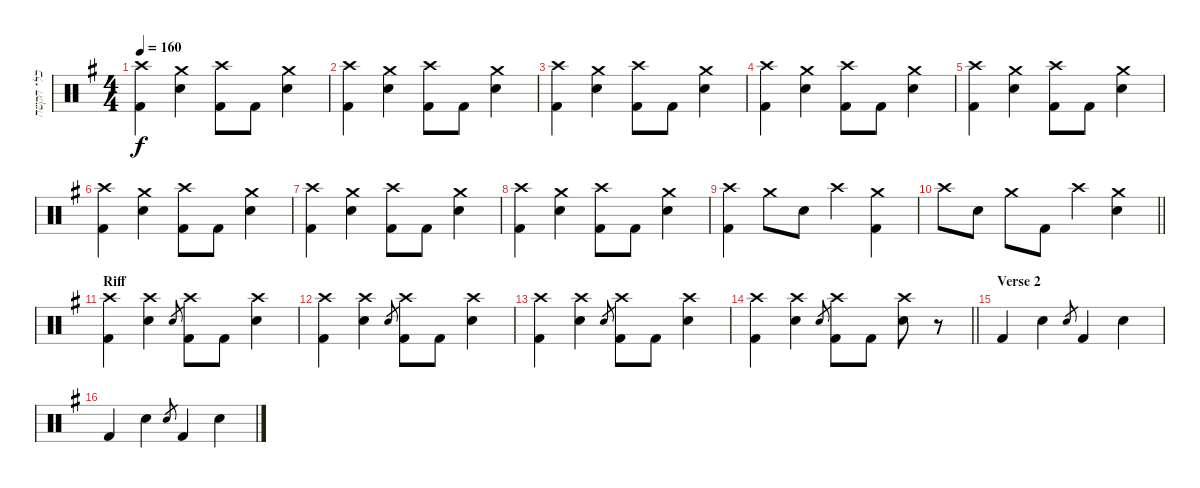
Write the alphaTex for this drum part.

\track ("כלי הקשה" "כלי הקשה") {instrument percussion bank 127}
\staff {score}
\articulation defaults
\ts (4 4)
\tempo 160
\clef neutral
\ks eminor
("Crash high (hit)" "Kick (hit) 2").4{dy f} ("Crash medium (hit)" "Electric Snare (hit)").4 ("Crash high (hit)" "Kick (hit) 2").8 "Kick (hit) 2".8 ("Crash medium (hit)" "Electric Snare (hit)").4 |
("Crash high (hit)" "Kick (hit) 2").4 ("Crash medium (hit)" "Electric Snare (hit)").4 ("Crash high (hit)" "Kick (hit) 2").8 "Kick (hit) 2".8 ("Crash medium (hit)" "Electric Snare (hit)").4 |
("Crash high (hit)" "Kick (hit) 2").4 ("Crash medium (hit)" "Electric Snare (hit)").4 ("Crash high (hit)" "Kick (hit) 2").8 "Kick (hit) 2".8 ("Crash medium (hit)" "Electric Snare (hit)").4 |
("Crash high (hit)" "Kick (hit) 2").4 ("Crash medium (hit)" "Electric Snare (hit)").4 ("Crash high (hit)" "Kick (hit) 2").8 "Kick (hit) 2".8 ("Crash medium (hit)" "Electric Snare (hit)").4 |
("Crash high (hit)" "Kick (hit) 2").4 ("Crash medium (hit)" "Electric Snare (hit)").4 ("Crash high (hit)" "Kick (hit) 2").8 "Kick (hit) 2".8 ("Crash medium (hit)" "Electric Snare (hit)").4 |
("Crash high (hit)" "Kick (hit) 2").4 ("Crash medium (hit)" "Electric Snare (hit)").4 ("Crash high (hit)" "Kick (hit) 2").8 "Kick (hit) 2".8 ("Crash medium (hit)" "Electric Snare (hit)").4 |
("Crash high (hit)" "Kick (hit) 2").4 ("Crash medium (hit)" "Electric Snare (hit)").4 ("Crash high (hit)" "Kick (hit) 2").8 "Kick (hit) 2".8 ("Crash medium (hit)" "Electric Snare (hit)").4 |
("Crash high (hit)" "Kick (hit) 2").4 ("Crash medium (hit)" "Electric Snare (hit)").4 ("Crash high (hit)" "Kick (hit) 2").8 "Kick (hit) 2".8 ("Crash medium (hit)" "Electric Snare (hit)").4 |
("Crash high (hit)" "Kick (hit) 2").4 "Crash medium (hit)".8 "Electric Snare (hit)".8 "Crash high (hit)".4 ("Crash medium (hit)" "Kick (hit) 2").4 |
\barLineRight lightlight "Crash high (hit)".8 "Electric Snare (hit)".8 "Crash medium (hit)".8 "Kick (hit) 2".8 "Crash high (hit)".4
("Crash medium (hit)" "Electric Snare (hit)").4 |
\section ("" "Riff")
("Crash high (hit)" "Kick (hit) 2").4 ("Crash high (hit)" "Electric Snare (hit)").4 "Electric Snare (hit)".8{gr} ("Crash high (hit)" "Kick (hit) 2").8 "Kick (hit) 2".8 ("Crash high (hit)" "Electric Snare (hit)").4 |
("Crash high (hit)" "Kick (hit) 2").4 ("Crash high (hit)" "Electric Snare (hit)").4 "Electric Snare (hit)".8{gr} ("Crash high (hit)" "Kick (hit) 2").8 "Kick (hit) 2".8 ("Crash high (hit)" "Electric Snare (hit)").4 |
("Crash high (hit)" "Kick (hit) 2").4 ("Crash high (hit)" "Electric Snare (hit)").4 "Electric Snare (hit)".8{gr} ("Crash high (hit)" "Kick (hit) 2").8 "Kick (hit) 2".8 ("Crash high (hit)" "Electric Snare (hit)").4 |
\barLineRight lightlight
("Crash high (hit)" "Kick (hit) 2").4 ("Crash high (hit)" "Electric Snare (hit)").4 "Electric Snare (hit)".8{gr} ("Crash high (hit)" "Kick (hit) 2").8 "Kick (hit) 2".8 ("Crash high (hit)" "Electric Snare (hit)").8 r.8 |
\section ("" "Verse 2")
"Kick (hit) 2".4 "Electric Snare (hit)".4 "Electric Snare (hit)".8{gr} "Kick (hit) 2".4 "Electric Snare (hit)".4 |
"Kick (hit) 2".4 "Electric Snare (hit)".4 "Electric Snare (hit)".8{gr} "Kick (hit) 2".4 "Electric Snare (hit)".4
